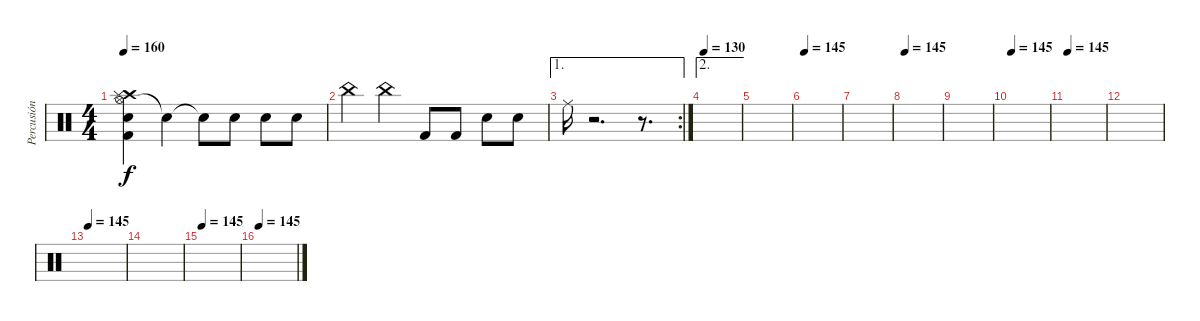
\track ("Percusión" "Percusión") {instrument percussion}
\staff {score}
\articulation defaults
\ts (4 4)
\tempo 160
\clef neutral
\ks c
("Hi-Hat (open)" "Crash high (hit)" "Splash (hit)" "Snare (hit) 2" "Kick (hit) 2").4{dy f} "Snare (hit)"{t}.4 "Snare (hit)"{t}.8 "Snare (hit) 2".8 "Snare (hit) 2".8 "Snare (hit) 2".8 |
"China (hit)".4 "China (hit)".4 "Kick (hit) 2".8 "Kick (hit) 2".8 "Snare (hit) 2".8 "Snare (hit) 2".8 |
\ae 1
\rc 2 "Ride (middle)".16
r.2{d} r.8{d} |
\ae 2
\tempo 130
|
|
\tempo 145
|
|
\tempo 145
|
|
\tempo 145
|
\tempo 145
|
|
\tempo 145
|
|
\tempo 145
|
\tempo 145
